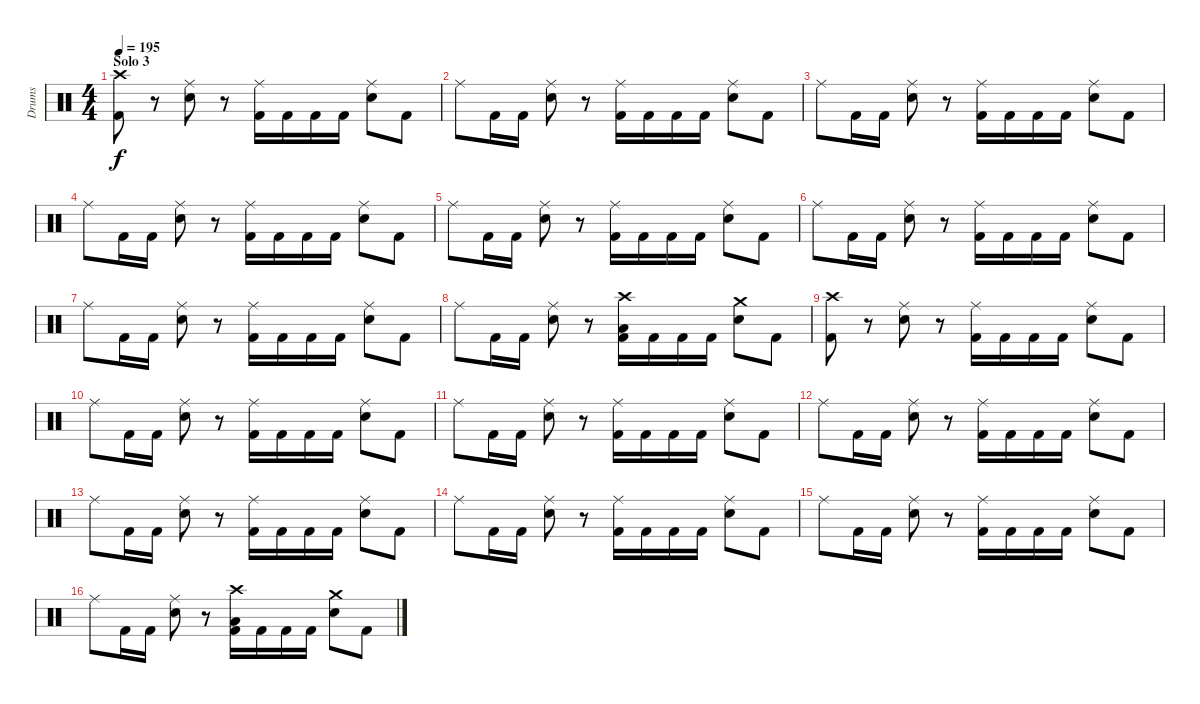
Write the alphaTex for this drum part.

\track ("Drums" "Drums") {instrument percussion}
\staff {score}
\articulation defaults
\ts (4 4)
\section ("" "Solo 3")
\tempo 195
\clef neutral
\ks c
("Crash high (hit)" "Kick (hit) 2").8{dy f} r.8 ("Ride (middle)" "Snare (hit) 2").8 r.8 ("Ride (middle)" "Kick (hit) 2").16 "Kick (hit) 2".16 "Kick (hit) 2".16 "Kick (hit) 2".16 ("Ride (middle)" "Snare (hit) 2").8 "Kick (hit) 2".8 |
"Ride (middle)".8 "Kick (hit) 2".16 "Kick (hit) 2".16 ("Ride (middle)" "Snare (hit) 2").8 r.8 ("Ride (middle)" "Kick (hit) 2").16 "Kick (hit) 2".16 "Kick (hit) 2".16 "Kick (hit) 2".16 ("Ride (middle)" "Snare (hit) 2").8 "Kick (hit) 2".8 |
"Ride (middle)".8 "Kick (hit) 2".16 "Kick (hit) 2".16 ("Ride (middle)" "Snare (hit) 2").8 r.8 ("Ride (middle)" "Kick (hit) 2").16 "Kick (hit) 2".16 "Kick (hit) 2".16 "Kick (hit) 2".16 ("Ride (middle)" "Snare (hit) 2").8 "Kick (hit) 2".8 |
"Ride (middle)".8 "Kick (hit) 2".16 "Kick (hit) 2".16 ("Ride (middle)" "Snare (hit) 2").8 r.8 ("Ride (middle)" "Kick (hit) 2").16 "Kick (hit) 2".16 "Kick (hit) 2".16 "Kick (hit) 2".16 ("Ride (middle)" "Snare (hit) 2").8 "Kick (hit) 2".8 |
"Ride (middle)".8 "Kick (hit) 2".16 "Kick (hit) 2".16 ("Ride (middle)" "Snare (hit) 2").8 r.8 ("Ride (middle)" "Kick (hit) 2").16 "Kick (hit) 2".16 "Kick (hit) 2".16 "Kick (hit) 2".16 ("Ride (middle)" "Snare (hit) 2").8 "Kick (hit) 2".8 |
"Ride (middle)".8 "Kick (hit) 2".16 "Kick (hit) 2".16 ("Ride (middle)" "Snare (hit) 2").8 r.8 ("Ride (middle)" "Kick (hit) 2").16 "Kick (hit) 2".16 "Kick (hit) 2".16 "Kick (hit) 2".16 ("Ride (middle)" "Snare (hit) 2").8 "Kick (hit) 2".8 |
"Ride (middle)".8 "Kick (hit) 2".16 "Kick (hit) 2".16 ("Ride (middle)" "Snare (hit) 2").8 r.8 ("Ride (middle)" "Kick (hit) 2").16 "Kick (hit) 2".16 "Kick (hit) 2".16 "Kick (hit) 2".16 ("Ride (middle)" "Snare (hit) 2").8 "Kick (hit) 2".8 |
"Ride (middle)".8 "Kick (hit) 2".16 "Kick (hit) 2".16 ("Ride (middle)" "Snare (hit) 2").8 r.8 ("Crash high (hit)" "Low Floor Tom (hit)" "Kick (hit) 2").16 "Kick (hit) 2".16 "Kick (hit) 2".16 "Kick (hit) 2".16 ("Crash medium (hit)" "Snare (hit) 2").8 "Kick (hit) 2".8 |
\section ("" "")
("Crash high (hit)" "Kick (hit) 2").8 r.8 ("Ride (middle)" "Snare (hit) 2").8 r.8 ("Ride (middle)" "Kick (hit) 2").16 "Kick (hit) 2".16 "Kick (hit) 2".16 "Kick (hit) 2".16 ("Ride (middle)" "Snare (hit) 2").8 "Kick (hit) 2".8 |
"Ride (middle)".8 "Kick (hit) 2".16 "Kick (hit) 2".16 ("Ride (middle)" "Snare (hit) 2").8 r.8 ("Ride (middle)" "Kick (hit) 2").16 "Kick (hit) 2".16 "Kick (hit) 2".16 "Kick (hit) 2".16 ("Ride (middle)" "Snare (hit) 2").8 "Kick (hit) 2".8 |
"Ride (middle)".8 "Kick (hit) 2".16 "Kick (hit) 2".16 ("Ride (middle)" "Snare (hit) 2").8 r.8 ("Ride (middle)" "Kick (hit) 2").16 "Kick (hit) 2".16 "Kick (hit) 2".16 "Kick (hit) 2".16 ("Ride (middle)" "Snare (hit) 2").8 "Kick (hit) 2".8 |
"Ride (middle)".8 "Kick (hit) 2".16 "Kick (hit) 2".16 ("Ride (middle)" "Snare (hit) 2").8 r.8 ("Ride (middle)" "Kick (hit) 2").16 "Kick (hit) 2".16 "Kick (hit) 2".16 "Kick (hit) 2".16 ("Ride (middle)" "Snare (hit) 2").8 "Kick (hit) 2".8 |
"Ride (middle)".8 "Kick (hit) 2".16 "Kick (hit) 2".16 ("Ride (middle)" "Snare (hit) 2").8 r.8 ("Ride (middle)" "Kick (hit) 2").16 "Kick (hit) 2".16 "Kick (hit) 2".16 "Kick (hit) 2".16 ("Ride (middle)" "Snare (hit) 2").8 "Kick (hit) 2".8 |
"Ride (middle)".8 "Kick (hit) 2".16 "Kick (hit) 2".16 ("Ride (middle)" "Snare (hit) 2").8 r.8 ("Ride (middle)" "Kick (hit) 2").16 "Kick (hit) 2".16 "Kick (hit) 2".16 "Kick (hit) 2".16 ("Ride (middle)" "Snare (hit) 2").8 "Kick (hit) 2".8 |
"Ride (middle)".8 "Kick (hit) 2".16 "Kick (hit) 2".16 ("Ride (middle)" "Snare (hit) 2").8 r.8 ("Ride (middle)" "Kick (hit) 2").16 "Kick (hit) 2".16 "Kick (hit) 2".16 "Kick (hit) 2".16 ("Ride (middle)" "Snare (hit) 2").8 "Kick (hit) 2".8 |
"Ride (middle)".8 "Kick (hit) 2".16 "Kick (hit) 2".16 ("Ride (middle)" "Snare (hit) 2").8 r.8 ("Crash high (hit)" "Low Floor Tom (hit)" "Kick (hit) 2").16 "Kick (hit) 2".16 "Kick (hit) 2".16 "Kick (hit) 2".16 ("Crash medium (hit)" "Snare (hit) 2").8 "Kick (hit) 2".8
